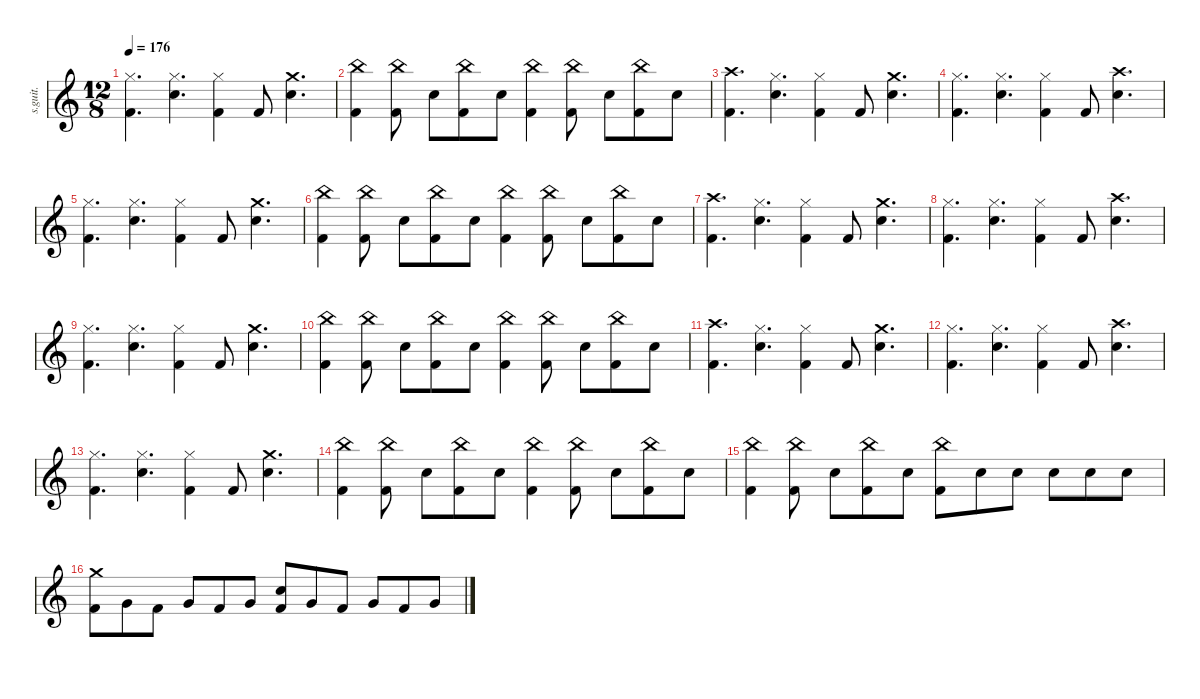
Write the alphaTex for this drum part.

\defaultSystemsLayout 4
\hideDynamics
\bracketExtendMode nobrackets
\track ("Vinnie Paul" "s.guit.") {instrument percussion}
\staff {score}
\articulation defaults
\ts (12 8)
\tempo 176
\clef g2
\ks c
("Hi-Hat (closed)" "Kick (hit) 2").4{d lyrics (0 "") lyrics (1 "") lyrics (2 "") lyrics (3 "") lyrics (4 "") dy f} ("Hi-Hat (closed)" "Snare (hit) 2").4{d lyrics (0 "") lyrics (1 "") lyrics (2 "") lyrics (3 "") lyrics (4 "")} ("Hi-Hat (closed)" "Kick (hit) 2").4{lyrics (0 "") lyrics (1 "") lyrics (2 "") lyrics (3 "") lyrics (4 "")} "Kick (hit) 2".8{lyrics (0 "") lyrics (1 "") lyrics (2 "") lyrics (3 "") lyrics (4 "")} ("Crash medium (hit)" "Snare (hit) 2").4{d lyrics (0 "") lyrics (1 "") lyrics (2 "") lyrics (3 "") lyrics (4 "")} |
("China (hit)" "Kick (hit) 2").4{lyrics (0 "") lyrics (1 "") lyrics (2 "") lyrics (3 "") lyrics (4 "")} ("China (hit)" "Kick (hit) 2").8{lyrics (0 "") lyrics (1 "") lyrics (2 "") lyrics (3 "") lyrics (4 "")} "Snare (hit) 2".8{lyrics (0 "") lyrics (1 "") lyrics (2 "") lyrics (3 "") lyrics (4 "")} ("China (hit)" "Kick (hit) 2").8{lyrics (0 "") lyrics (1 "") lyrics (2 "") lyrics (3 "") lyrics (4 "")} "Snare (hit) 2".8{lyrics (0 "") lyrics (1 "") lyrics (2 "") lyrics (3 "") lyrics (4 "")} ("China (hit)" "Kick (hit) 2").4{lyrics (0 "") lyrics (1 "") lyrics (2 "") lyrics (3 "") lyrics (4 "")} ("China (hit)" "Kick (hit) 2").8{lyrics (0 "") lyrics (1 "") lyrics (2 "") lyrics (3 "") lyrics (4 "")} "Snare (hit) 2".8{lyrics (0 "") lyrics (1 "") lyrics (2 "") lyrics (3 "") lyrics (4 "")} ("China (hit)" "Kick (hit) 2").8{lyrics (0 "") lyrics (1 "") lyrics (2 "") lyrics (3 "") lyrics (4 "")} "Snare (hit) 2".8{lyrics (0 "") lyrics (1 "") lyrics (2 "") lyrics (3 "") lyrics (4 "")} |
("Crash high (hit)" "Kick (hit) 2").4{d lyrics (0 "") lyrics (1 "") lyrics (2 "") lyrics (3 "") lyrics (4 "")} ("Hi-Hat (closed)" "Snare (hit) 2").4{d lyrics (0 "") lyrics (1 "") lyrics (2 "") lyrics (3 "") lyrics (4 "")} ("Hi-Hat (closed)" "Kick (hit) 2").4{lyrics (0 "") lyrics (1 "") lyrics (2 "") lyrics (3 "") lyrics (4 "")} "Kick (hit) 2".8{lyrics (0 "") lyrics (1 "") lyrics (2 "") lyrics (3 "") lyrics (4 "")} ("Crash medium (hit)" "Snare (hit) 2").4{d lyrics (0 "") lyrics (1 "") lyrics (2 "") lyrics (3 "") lyrics (4 "")} |
("Hi-Hat (closed)" "Kick (hit) 2").4{d lyrics (0 "") lyrics (1 "") lyrics (2 "") lyrics (3 "") lyrics (4 "")} ("Hi-Hat (closed)" "Snare (hit) 2").4{d lyrics (0 "") lyrics (1 "") lyrics (2 "") lyrics (3 "") lyrics (4 "")} ("Hi-Hat (closed)" "Kick (hit) 2").4{lyrics (0 "") lyrics (1 "") lyrics (2 "") lyrics (3 "") lyrics (4 "")} "Kick (hit) 2".8{lyrics (0 "") lyrics (1 "") lyrics (2 "") lyrics (3 "") lyrics (4 "")} ("Crash high (hit)" "Snare (hit) 2").4{d lyrics (0 "") lyrics (1 "") lyrics (2 "") lyrics (3 "") lyrics (4 "")} |
("Hi-Hat (closed)" "Kick (hit) 2").4{d lyrics (0 "") lyrics (1 "") lyrics (2 "") lyrics (3 "") lyrics (4 "")} ("Hi-Hat (closed)" "Snare (hit) 2").4{d lyrics (0 "") lyrics (1 "") lyrics (2 "") lyrics (3 "") lyrics (4 "")} ("Hi-Hat (closed)" "Kick (hit) 2").4{lyrics (0 "") lyrics (1 "") lyrics (2 "") lyrics (3 "") lyrics (4 "")} "Kick (hit) 2".8{lyrics (0 "") lyrics (1 "") lyrics (2 "") lyrics (3 "") lyrics (4 "")} ("Crash medium (hit)" "Snare (hit) 2").4{d lyrics (0 "") lyrics (1 "") lyrics (2 "") lyrics (3 "") lyrics (4 "")} |
("China (hit)" "Kick (hit) 2").4{lyrics (0 "") lyrics (1 "") lyrics (2 "") lyrics (3 "") lyrics (4 "")} ("China (hit)" "Kick (hit) 2").8{lyrics (0 "") lyrics (1 "") lyrics (2 "") lyrics (3 "") lyrics (4 "")} "Snare (hit) 2".8{lyrics (0 "") lyrics (1 "") lyrics (2 "") lyrics (3 "") lyrics (4 "")} ("China (hit)" "Kick (hit) 2").8{lyrics (0 "") lyrics (1 "") lyrics (2 "") lyrics (3 "") lyrics (4 "")} "Snare (hit) 2".8{lyrics (0 "") lyrics (1 "") lyrics (2 "") lyrics (3 "") lyrics (4 "")} ("China (hit)" "Kick (hit) 2").4{lyrics (0 "") lyrics (1 "") lyrics (2 "") lyrics (3 "") lyrics (4 "")} ("China (hit)" "Kick (hit) 2").8{lyrics (0 "") lyrics (1 "") lyrics (2 "") lyrics (3 "") lyrics (4 "")} "Snare (hit) 2".8{lyrics (0 "") lyrics (1 "") lyrics (2 "") lyrics (3 "") lyrics (4 "")} ("China (hit)" "Kick (hit) 2").8{lyrics (0 "") lyrics (1 "") lyrics (2 "") lyrics (3 "") lyrics (4 "")} "Snare (hit) 2".8{lyrics (0 "") lyrics (1 "") lyrics (2 "") lyrics (3 "") lyrics (4 "")} |
("Crash high (hit)" "Kick (hit) 2").4{d lyrics (0 "") lyrics (1 "") lyrics (2 "") lyrics (3 "") lyrics (4 "")} ("Hi-Hat (closed)" "Snare (hit) 2").4{d lyrics (0 "") lyrics (1 "") lyrics (2 "") lyrics (3 "") lyrics (4 "")} ("Hi-Hat (closed)" "Kick (hit) 2").4{lyrics (0 "") lyrics (1 "") lyrics (2 "") lyrics (3 "") lyrics (4 "")} "Kick (hit) 2".8{lyrics (0 "") lyrics (1 "") lyrics (2 "") lyrics (3 "") lyrics (4 "")} ("Crash medium (hit)" "Snare (hit) 2").4{d lyrics (0 "") lyrics (1 "") lyrics (2 "") lyrics (3 "") lyrics (4 "")} |
("Hi-Hat (closed)" "Kick (hit) 2").4{d lyrics (0 "") lyrics (1 "") lyrics (2 "") lyrics (3 "") lyrics (4 "")} ("Hi-Hat (closed)" "Snare (hit) 2").4{d lyrics (0 "") lyrics (1 "") lyrics (2 "") lyrics (3 "") lyrics (4 "")} ("Hi-Hat (closed)" "Kick (hit) 2").4{lyrics (0 "") lyrics (1 "") lyrics (2 "") lyrics (3 "") lyrics (4 "")} "Kick (hit) 2".8{lyrics (0 "") lyrics (1 "") lyrics (2 "") lyrics (3 "") lyrics (4 "")} ("Crash high (hit)" "Snare (hit) 2").4{d lyrics (0 "") lyrics (1 "") lyrics (2 "") lyrics (3 "") lyrics (4 "")} |
("Hi-Hat (closed)" "Kick (hit) 2").4{d lyrics (0 "") lyrics (1 "") lyrics (2 "") lyrics (3 "") lyrics (4 "")} ("Hi-Hat (closed)" "Snare (hit) 2").4{d lyrics (0 "") lyrics (1 "") lyrics (2 "") lyrics (3 "") lyrics (4 "")} ("Hi-Hat (closed)" "Kick (hit) 2").4{lyrics (0 "") lyrics (1 "") lyrics (2 "") lyrics (3 "") lyrics (4 "")} "Kick (hit) 2".8{lyrics (0 "") lyrics (1 "") lyrics (2 "") lyrics (3 "") lyrics (4 "")} ("Crash medium (hit)" "Snare (hit) 2").4{d lyrics (0 "") lyrics (1 "") lyrics (2 "") lyrics (3 "") lyrics (4 "")} |
("China (hit)" "Kick (hit) 2").4{lyrics (0 "") lyrics (1 "") lyrics (2 "") lyrics (3 "") lyrics (4 "")} ("China (hit)" "Kick (hit) 2").8{lyrics (0 "") lyrics (1 "") lyrics (2 "") lyrics (3 "") lyrics (4 "")} "Snare (hit) 2".8{lyrics (0 "") lyrics (1 "") lyrics (2 "") lyrics (3 "") lyrics (4 "")} ("China (hit)" "Kick (hit) 2").8{lyrics (0 "") lyrics (1 "") lyrics (2 "") lyrics (3 "") lyrics (4 "")} "Snare (hit) 2".8{lyrics (0 "") lyrics (1 "") lyrics (2 "") lyrics (3 "") lyrics (4 "")} ("China (hit)" "Kick (hit) 2").4{lyrics (0 "") lyrics (1 "") lyrics (2 "") lyrics (3 "") lyrics (4 "")} ("China (hit)" "Kick (hit) 2").8{lyrics (0 "") lyrics (1 "") lyrics (2 "") lyrics (3 "") lyrics (4 "")} "Snare (hit) 2".8{lyrics (0 "") lyrics (1 "") lyrics (2 "") lyrics (3 "") lyrics (4 "")} ("China (hit)" "Kick (hit) 2").8{lyrics (0 "") lyrics (1 "") lyrics (2 "") lyrics (3 "") lyrics (4 "")} "Snare (hit) 2".8{lyrics (0 "") lyrics (1 "") lyrics (2 "") lyrics (3 "") lyrics (4 "")} |
("Crash high (hit)" "Kick (hit) 2").4{d lyrics (0 "") lyrics (1 "") lyrics (2 "") lyrics (3 "") lyrics (4 "")} ("Hi-Hat (closed)" "Snare (hit) 2").4{d lyrics (0 "") lyrics (1 "") lyrics (2 "") lyrics (3 "") lyrics (4 "")} ("Hi-Hat (closed)" "Kick (hit) 2").4{lyrics (0 "") lyrics (1 "") lyrics (2 "") lyrics (3 "") lyrics (4 "")} "Kick (hit) 2".8{lyrics (0 "") lyrics (1 "") lyrics (2 "") lyrics (3 "") lyrics (4 "")} ("Crash medium (hit)" "Snare (hit) 2").4{d lyrics (0 "") lyrics (1 "") lyrics (2 "") lyrics (3 "") lyrics (4 "")} |
("Hi-Hat (closed)" "Kick (hit) 2").4{d lyrics (0 "") lyrics (1 "") lyrics (2 "") lyrics (3 "") lyrics (4 "")} ("Hi-Hat (closed)" "Snare (hit) 2").4{d lyrics (0 "") lyrics (1 "") lyrics (2 "") lyrics (3 "") lyrics (4 "")} ("Hi-Hat (closed)" "Kick (hit) 2").4{lyrics (0 "") lyrics (1 "") lyrics (2 "") lyrics (3 "") lyrics (4 "")} "Kick (hit) 2".8{lyrics (0 "") lyrics (1 "") lyrics (2 "") lyrics (3 "") lyrics (4 "")} ("Crash high (hit)" "Snare (hit) 2").4{d lyrics (0 "") lyrics (1 "") lyrics (2 "") lyrics (3 "") lyrics (4 "")} |
("Hi-Hat (closed)" "Kick (hit) 2").4{d lyrics (0 "") lyrics (1 "") lyrics (2 "") lyrics (3 "") lyrics (4 "")} ("Hi-Hat (closed)" "Snare (hit) 2").4{d lyrics (0 "") lyrics (1 "") lyrics (2 "") lyrics (3 "") lyrics (4 "")} ("Hi-Hat (closed)" "Kick (hit) 2").4{lyrics (0 "") lyrics (1 "") lyrics (2 "") lyrics (3 "") lyrics (4 "")} "Kick (hit) 2".8{lyrics (0 "") lyrics (1 "") lyrics (2 "") lyrics (3 "") lyrics (4 "")} ("Crash medium (hit)" "Snare (hit) 2").4{d lyrics (0 "") lyrics (1 "") lyrics (2 "") lyrics (3 "") lyrics (4 "")} |
("China (hit)" "Kick (hit) 2").4{lyrics (0 "") lyrics (1 "") lyrics (2 "") lyrics (3 "") lyrics (4 "")} ("China (hit)" "Kick (hit) 2").8{lyrics (0 "") lyrics (1 "") lyrics (2 "") lyrics (3 "") lyrics (4 "")} "Snare (hit) 2".8{lyrics (0 "") lyrics (1 "") lyrics (2 "") lyrics (3 "") lyrics (4 "")} ("China (hit)" "Kick (hit) 2").8{lyrics (0 "") lyrics (1 "") lyrics (2 "") lyrics (3 "") lyrics (4 "")} "Snare (hit) 2".8{lyrics (0 "") lyrics (1 "") lyrics (2 "") lyrics (3 "") lyrics (4 "")} ("China (hit)" "Kick (hit) 2").4{lyrics (0 "") lyrics (1 "") lyrics (2 "") lyrics (3 "") lyrics (4 "")} ("China (hit)" "Kick (hit) 2").8{lyrics (0 "") lyrics (1 "") lyrics (2 "") lyrics (3 "") lyrics (4 "")} "Snare (hit) 2".8{lyrics (0 "") lyrics (1 "") lyrics (2 "") lyrics (3 "") lyrics (4 "")} ("China (hit)" "Kick (hit) 2").8{lyrics (0 "") lyrics (1 "") lyrics (2 "") lyrics (3 "") lyrics (4 "")} "Snare (hit) 2".8{lyrics (0 "") lyrics (1 "") lyrics (2 "") lyrics (3 "") lyrics (4 "")} |
("China (hit)" "Kick (hit) 2").4{lyrics (0 "") lyrics (1 "") lyrics (2 "") lyrics (3 "") lyrics (4 "")} ("China (hit)" "Kick (hit) 2").8{lyrics (0 "") lyrics (1 "") lyrics (2 "") lyrics (3 "") lyrics (4 "")} "Snare (hit) 2".8{lyrics (0 "") lyrics (1 "") lyrics (2 "") lyrics (3 "") lyrics (4 "")} ("China (hit)" "Kick (hit) 2").8{lyrics (0 "") lyrics (1 "") lyrics (2 "") lyrics (3 "") lyrics (4 "")} "Snare (hit) 2".8{lyrics (0 "") lyrics (1 "") lyrics (2 "") lyrics (3 "") lyrics (4 "")} ("China (hit)" "Kick (hit) 2").8{lyrics (0 "") lyrics (1 "") lyrics (2 "") lyrics (3 "") lyrics (4 "")} "Snare (hit) 2".8{lyrics (0 "") lyrics (1 "") lyrics (2 "") lyrics (3 "") lyrics (4 "")} "Snare (hit) 2".8{lyrics (0 "") lyrics (1 "") lyrics (2 "") lyrics (3 "") lyrics (4 "")} "Snare (hit) 2".8{lyrics (0 "") lyrics (1 "") lyrics (2 "") lyrics (3 "") lyrics (4 "")} "Snare (hit) 2".8{lyrics (0 "") lyrics (1 "") lyrics (2 "") lyrics (3 "") lyrics (4 "")} "Snare (hit) 2".8{lyrics (0 "") lyrics (1 "") lyrics (2 "") lyrics (3 "") lyrics (4 "")} |
("Crash medium (hit)" "Kick (hit) 2").8{lyrics (0 "") lyrics (1 "") lyrics (2 "") lyrics (3 "") lyrics (4 "")} "Very Low Tom (hit)".8{lyrics (0 "") lyrics (1 "") lyrics (2 "") lyrics (3 "") lyrics (4 "")} "Kick (hit) 2".8{lyrics (0 "") lyrics (1 "") lyrics (2 "") lyrics (3 "") lyrics (4 "")} "Very Low Tom (hit)".8{lyrics (0 "") lyrics (1 "") lyrics (2 "") lyrics (3 "") lyrics (4 "")} "Kick (hit) 2".8{lyrics (0 "") lyrics (1 "") lyrics (2 "") lyrics (3 "") lyrics (4 "")} "Very Low Tom (hit)".8{lyrics (0 "") lyrics (1 "") lyrics (2 "") lyrics (3 "") lyrics (4 "")} ("Snare (hit) 2" "Kick (hit) 2").8{lyrics (0 "") lyrics (1 "") lyrics (2 "") lyrics (3 "") lyrics (4 "")} "Very Low Tom (hit)".8{lyrics (0 "") lyrics (1 "") lyrics (2 "") lyrics (3 "") lyrics (4 "")} "Kick (hit) 2".8{lyrics (0 "") lyrics (1 "") lyrics (2 "") lyrics (3 "") lyrics (4 "")} "Very Low Tom (hit)".8{lyrics (0 "") lyrics (1 "") lyrics (2 "") lyrics (3 "") lyrics (4 "")} "Kick (hit) 2".8{lyrics (0 "") lyrics (1 "") lyrics (2 "") lyrics (3 "") lyrics (4 "")} "Very Low Tom (hit)".8{lyrics (0 "") lyrics (1 "") lyrics (2 "") lyrics (3 "") lyrics (4 "")}
